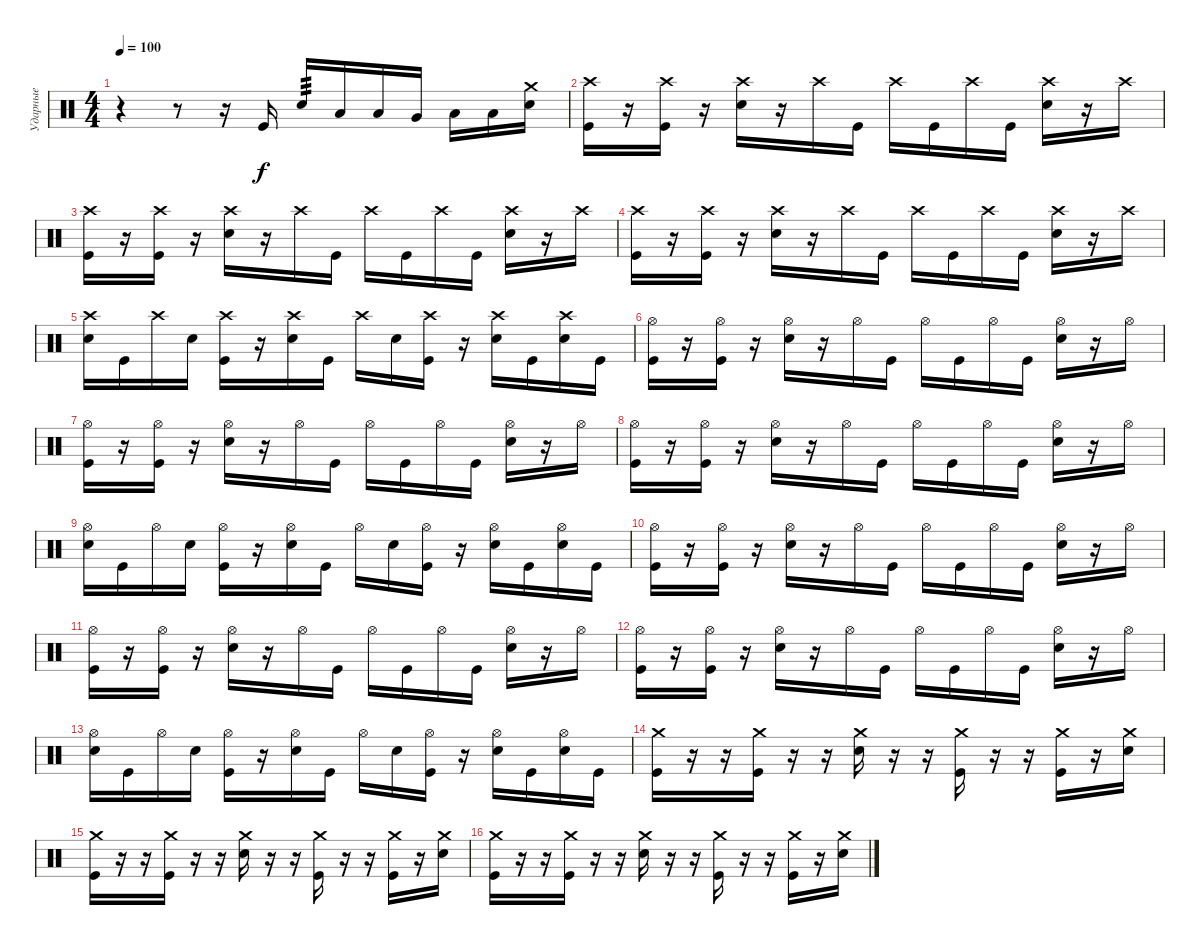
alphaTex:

\track ("Ударные" "Ударные") {instrument percussion}
\staff {score}
\articulation defaults
\ts (4 4)
\tempo 100
\clef neutral
\ks c
r.4{dy f} r.8 r.16 "Kick (hit)".16 "Electric Snare (hit)".16{tp 3} "Low Floor Tom (hit)".16 "Low Floor Tom (hit)".16 "Very Low Tom (hit)".16 "Low Floor Tom (hit)".16 "Low Floor Tom (hit)".16 ("Crash medium (hit)" "Electric Snare (hit)").16 |
("Crash high (hit)" "Kick (hit)").16 r.16 ("Crash high (hit)" "Kick (hit)").16 r.16 ("Crash high (hit)" "Electric Snare (hit)").16 r.16 "Crash high (hit)".16 "Kick (hit)".16 "Crash high (hit)".16 "Kick (hit)".16 "Crash high (hit)".16 "Kick (hit)".16 ("Crash high (hit)" "Electric Snare (hit)").16 r.16 "Crash high (hit)".16 |
("Crash high (hit)" "Kick (hit)").16 r.16 ("Crash high (hit)" "Kick (hit)").16 r.16 ("Crash high (hit)" "Electric Snare (hit)").16 r.16 "Crash high (hit)".16 "Kick (hit)".16 "Crash high (hit)".16 "Kick (hit)".16 "Crash high (hit)".16 "Kick (hit)".16 ("Crash high (hit)" "Electric Snare (hit)").16 r.16 "Crash high (hit)".16 |
("Crash high (hit)" "Kick (hit)").16 r.16 ("Crash high (hit)" "Kick (hit)").16 r.16 ("Crash high (hit)" "Electric Snare (hit)").16 r.16 "Crash high (hit)".16 "Kick (hit)".16 "Crash high (hit)".16 "Kick (hit)".16 "Crash high (hit)".16 "Kick (hit)".16 ("Crash high (hit)" "Electric Snare (hit)").16 r.16 "Crash high (hit)".16 |
("Crash high (hit)" "Electric Snare (hit)").16 "Kick (hit)".16 "Crash high (hit)".16 "Electric Snare (hit)".16 ("Crash high (hit)" "Kick (hit)").16 r.16 ("Crash high (hit)" "Electric Snare (hit)").16 "Kick (hit)".16 "Crash high (hit)".16 "Electric Snare (hit)".16 ("Crash high (hit)" "Kick (hit)").16 r.16 ("Crash high (hit)" "Electric Snare (hit)").16 "Kick (hit)".16 ("Crash high (hit)" "Electric Snare (hit)").16 "Kick (hit)".16 |
("Hi-Hat (open)" "Kick (hit)").16 r.16 ("Hi-Hat (open)" "Kick (hit)").16 r.16 ("Hi-Hat (open)" "Electric Snare (hit)").16 r.16 "Hi-Hat (open)".16 "Kick (hit)".16 "Hi-Hat (open)".16 "Kick (hit)".16 "Hi-Hat (open)".16 "Kick (hit)".16 ("Hi-Hat (open)" "Electric Snare (hit)").16 r.16 "Hi-Hat (open)".16 |
("Hi-Hat (open)" "Kick (hit)").16 r.16 ("Hi-Hat (open)" "Kick (hit)").16 r.16 ("Hi-Hat (open)" "Electric Snare (hit)").16 r.16 "Hi-Hat (open)".16 "Kick (hit)".16 "Hi-Hat (open)".16 "Kick (hit)".16 "Hi-Hat (open)".16 "Kick (hit)".16 ("Hi-Hat (open)" "Electric Snare (hit)").16 r.16 "Hi-Hat (open)".16 |
("Hi-Hat (open)" "Kick (hit)").16 r.16 ("Hi-Hat (open)" "Kick (hit)").16 r.16 ("Hi-Hat (open)" "Electric Snare (hit)").16 r.16 "Hi-Hat (open)".16 "Kick (hit)".16 "Hi-Hat (open)".16 "Kick (hit)".16 "Hi-Hat (open)".16 "Kick (hit)".16 ("Hi-Hat (open)" "Electric Snare (hit)").16 r.16 "Hi-Hat (open)".16 |
("Hi-Hat (open)" "Electric Snare (hit)").16 "Kick (hit)".16 "Hi-Hat (open)".16 "Electric Snare (hit)".16 ("Hi-Hat (open)" "Kick (hit)").16 r.16 ("Hi-Hat (open)" "Electric Snare (hit)").16 "Kick (hit)".16 "Hi-Hat (open)".16 "Electric Snare (hit)".16 ("Hi-Hat (open)" "Kick (hit)").16 r.16 ("Hi-Hat (open)" "Electric Snare (hit)").16 "Kick (hit)".16 ("Hi-Hat (open)" "Electric Snare (hit)").16 "Kick (hit)".16 |
("Hi-Hat (open)" "Kick (hit)").16 r.16 ("Hi-Hat (open)" "Kick (hit)").16 r.16 ("Hi-Hat (open)" "Electric Snare (hit)").16 r.16 "Hi-Hat (open)".16 "Kick (hit)".16 "Hi-Hat (open)".16 "Kick (hit)".16 "Hi-Hat (open)".16 "Kick (hit)".16 ("Hi-Hat (open)" "Electric Snare (hit)").16 r.16 "Hi-Hat (open)".16 |
("Hi-Hat (open)" "Kick (hit)").16 r.16 ("Hi-Hat (open)" "Kick (hit)").16 r.16 ("Hi-Hat (open)" "Electric Snare (hit)").16 r.16 "Hi-Hat (open)".16 "Kick (hit)".16 "Hi-Hat (open)".16 "Kick (hit)".16 "Hi-Hat (open)".16 "Kick (hit)".16 ("Hi-Hat (open)" "Electric Snare (hit)").16 r.16 "Hi-Hat (open)".16 |
("Hi-Hat (open)" "Kick (hit)").16 r.16 ("Hi-Hat (open)" "Kick (hit)").16 r.16 ("Hi-Hat (open)" "Electric Snare (hit)").16 r.16 "Hi-Hat (open)".16 "Kick (hit)".16 "Hi-Hat (open)".16 "Kick (hit)".16 "Hi-Hat (open)".16 "Kick (hit)".16 ("Hi-Hat (open)" "Electric Snare (hit)").16 r.16 "Hi-Hat (open)".16 |
("Hi-Hat (open)" "Electric Snare (hit)").16 "Kick (hit)".16 "Hi-Hat (open)".16 "Electric Snare (hit)".16 ("Hi-Hat (open)" "Kick (hit)").16 r.16 ("Hi-Hat (open)" "Electric Snare (hit)").16 "Kick (hit)".16 "Hi-Hat (open)".16 "Electric Snare (hit)".16 ("Hi-Hat (open)" "Kick (hit)").16 r.16 ("Hi-Hat (open)" "Electric Snare (hit)").16 "Kick (hit)".16 ("Hi-Hat (open)" "Electric Snare (hit)").16 "Kick (hit)".16 |
("Crash medium (hit)" "Kick (hit)").16 r.16 r.16 ("Crash medium (hit)" "Kick (hit)").16 r.16 r.16 ("Crash medium (hit)" "Electric Snare (hit)").16 r.16 r.16 ("Crash medium (hit)" "Kick (hit)").16 r.16 r.16 ("Crash medium (hit)" "Kick (hit)").16 r.16 ("Crash medium (hit)" "Electric Snare (hit)").16 |
("Crash medium (hit)" "Kick (hit)").16 r.16 r.16 ("Crash medium (hit)" "Kick (hit)").16 r.16 r.16 ("Crash medium (hit)" "Electric Snare (hit)").16 r.16 r.16 ("Crash medium (hit)" "Kick (hit)").16 r.16 r.16 ("Crash medium (hit)" "Kick (hit)").16 r.16 ("Crash medium (hit)" "Electric Snare (hit)").16 |
("Crash medium (hit)" "Kick (hit)").16 r.16 r.16 ("Crash medium (hit)" "Kick (hit)").16 r.16 r.16 ("Crash medium (hit)" "Electric Snare (hit)").16 r.16 r.16 ("Crash medium (hit)" "Kick (hit)").16 r.16 r.16 ("Crash medium (hit)" "Kick (hit)").16 r.16 ("Crash medium (hit)" "Electric Snare (hit)").16
